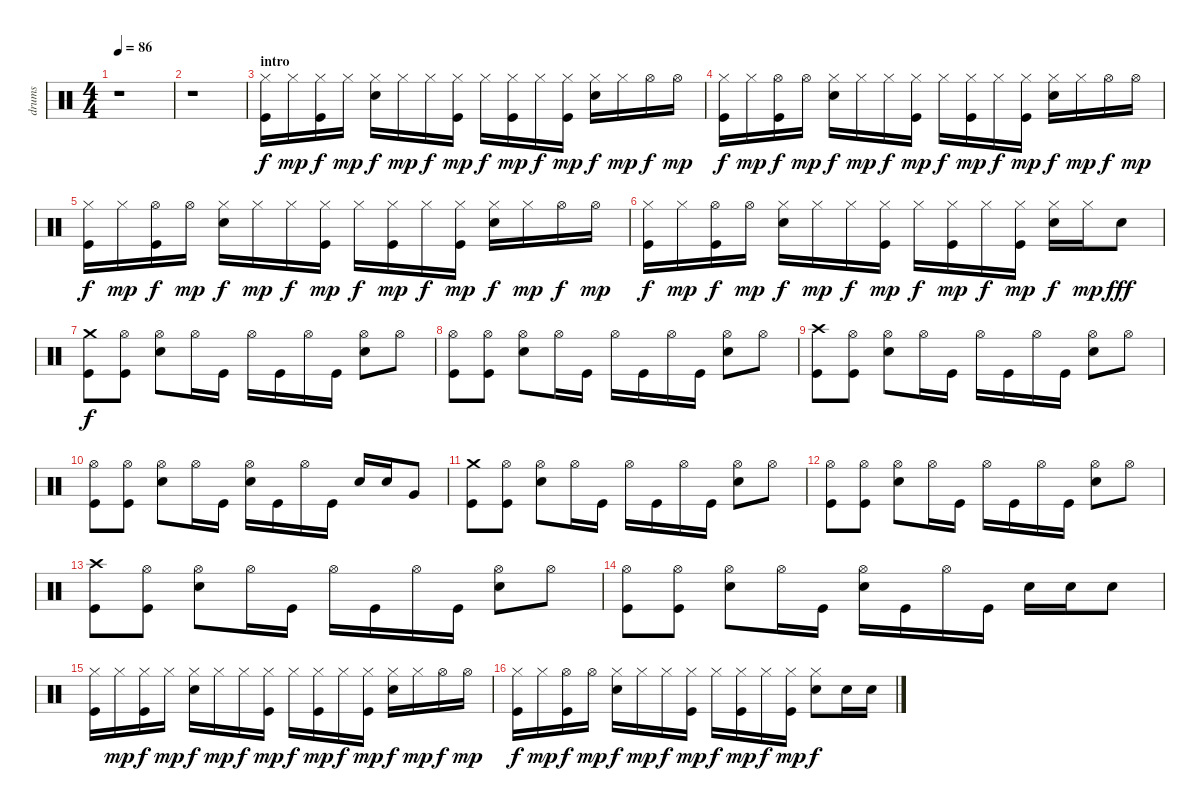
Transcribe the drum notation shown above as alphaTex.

\track ("drums" "drums") {instrument percussion}
\staff {score}
\articulation defaults
\ts (4 4)
\tempo 86
\clef neutral
\ks c
r.1{dy f} |
r.1 |
\section ("" "intro")
("Hi-Hat (closed)" "Kick (hit)").16 "Hi-Hat (closed)".16{dy mp} ("Hi-Hat (closed)" "Kick (hit)").16{dy f} "Hi-Hat (closed)".16{dy mp} ("Hi-Hat (closed)" "Electric Snare (hit)").16{dy f} "Hi-Hat (closed)".16{dy mp} "Hi-Hat (closed)".16{dy f} ("Hi-Hat (closed)" "Kick (hit)").16{dy mp} "Hi-Hat (closed)".16{dy f} ("Hi-Hat (closed)" "Kick (hit)").16{dy mp} "Hi-Hat (closed)".16{dy f} ("Hi-Hat (closed)" "Kick (hit)").16{dy mp} ("Hi-Hat (closed)" "Electric Snare (hit)").16{dy f} "Hi-Hat (closed)".16{dy mp} "Hi-Hat (open)".16{dy f} "Hi-Hat (open)".16{dy mp} |
("Hi-Hat (closed)" "Kick (hit)").16{dy f} "Hi-Hat (closed)".16{dy mp} ("Hi-Hat (open)" "Kick (hit)").16{dy f} "Hi-Hat (open)".16{dy mp} ("Hi-Hat (closed)" "Electric Snare (hit)").16{dy f} "Hi-Hat (closed)".16{dy mp} "Hi-Hat (closed)".16{dy f} ("Hi-Hat (closed)" "Kick (hit)").16{dy mp} "Hi-Hat (closed)".16{dy f} ("Hi-Hat (closed)" "Kick (hit)").16{dy mp} "Hi-Hat (closed)".16{dy f} ("Hi-Hat (closed)" "Kick (hit)").16{dy mp} ("Hi-Hat (closed)" "Electric Snare (hit)").16{dy f} "Hi-Hat (closed)".16{dy mp} "Hi-Hat (open)".16{dy f} "Hi-Hat (open)".16{dy mp} |
("Hi-Hat (closed)" "Kick (hit)").16{dy f} "Hi-Hat (closed)".16{dy mp} ("Hi-Hat (open)" "Kick (hit)").16{dy f} "Hi-Hat (open)".16{dy mp} ("Hi-Hat (closed)" "Electric Snare (hit)").16{dy f} "Hi-Hat (closed)".16{dy mp} "Hi-Hat (closed)".16{dy f} ("Hi-Hat (closed)" "Kick (hit)").16{dy mp} "Hi-Hat (closed)".16{dy f} ("Hi-Hat (closed)" "Kick (hit)").16{dy mp} "Hi-Hat (closed)".16{dy f} ("Hi-Hat (closed)" "Kick (hit)").16{dy mp} ("Hi-Hat (closed)" "Electric Snare (hit)").16{dy f} "Hi-Hat (closed)".16{dy mp} "Hi-Hat (open)".16{dy f} "Hi-Hat (open)".16{dy mp} |
("Hi-Hat (closed)" "Kick (hit)").16{dy f} "Hi-Hat (closed)".16{dy mp} ("Hi-Hat (open)" "Kick (hit)").16{dy f} "Hi-Hat (open)".16{dy mp} ("Hi-Hat (closed)" "Electric Snare (hit)").16{dy f} "Hi-Hat (closed)".16{dy mp} "Hi-Hat (closed)".16{dy f} ("Hi-Hat (closed)" "Kick (hit)").16{dy mp} "Hi-Hat (closed)".16{dy f} ("Hi-Hat (closed)" "Kick (hit)").16{dy mp} "Hi-Hat (closed)".16{dy f} ("Hi-Hat (closed)" "Kick (hit)").16{dy mp} ("Hi-Hat (closed)" "Electric Snare (hit)").16{dy f} "Hi-Hat (closed)".16{dy mp} "Electric Snare (hit)".8{dy fff} |
("Crash medium (hit)" "Kick (hit)").8{dy f} ("Hi-Hat (open)" "Kick (hit)").8 ("Hi-Hat (open)" "Electric Snare (hit)").8 "Hi-Hat (open)".16 "Kick (hit)".16 "Hi-Hat (open)".16 "Kick (hit)".16 "Hi-Hat (open)".16 "Kick (hit)".16 ("Hi-Hat (open)" "Electric Snare (hit)").8 "Hi-Hat (open)".8 |
("Hi-Hat (open)" "Kick (hit)").8 ("Hi-Hat (open)" "Kick (hit)").8 ("Hi-Hat (open)" "Electric Snare (hit)").8 "Hi-Hat (open)".16 "Kick (hit)".16 "Hi-Hat (open)".16 "Kick (hit)".16 "Hi-Hat (open)".16 "Kick (hit)".16 ("Hi-Hat (open)" "Electric Snare (hit)").8 "Hi-Hat (open)".8 |
("Crash high (hit)" "Kick (hit)").8 ("Hi-Hat (open)" "Kick (hit)").8 ("Hi-Hat (open)" "Electric Snare (hit)").8 "Hi-Hat (open)".16 "Kick (hit)".16 "Hi-Hat (open)".16 "Kick (hit)".16 "Hi-Hat (open)".16 "Kick (hit)".16 ("Hi-Hat (open)" "Electric Snare (hit)").8 "Hi-Hat (open)".8 |
("Hi-Hat (open)" "Kick (hit)").8 ("Hi-Hat (open)" "Kick (hit)").8 ("Hi-Hat (open)" "Electric Snare (hit)").8 "Hi-Hat (open)".16 "Kick (hit)".16 ("Hi-Hat (open)" "Electric Snare (hit)").16 "Kick (hit)".16 "Hi-Hat (open)".16 "Kick (hit)".16 "Electric Snare (hit)".16 "Electric Snare (hit)".16 "Very Low Tom (hit)".8 |
("Crash medium (hit)" "Kick (hit)").8 ("Hi-Hat (open)" "Kick (hit)").8 ("Hi-Hat (open)" "Electric Snare (hit)").8 "Hi-Hat (open)".16 "Kick (hit)".16 "Hi-Hat (open)".16 "Kick (hit)".16 "Hi-Hat (open)".16 "Kick (hit)".16 ("Hi-Hat (open)" "Electric Snare (hit)").8 "Hi-Hat (open)".8 |
("Hi-Hat (open)" "Kick (hit)").8 ("Hi-Hat (open)" "Kick (hit)").8 ("Hi-Hat (open)" "Electric Snare (hit)").8 "Hi-Hat (open)".16 "Kick (hit)".16 "Hi-Hat (open)".16 "Kick (hit)".16 "Hi-Hat (open)".16 "Kick (hit)".16 ("Hi-Hat (open)" "Electric Snare (hit)").8 "Hi-Hat (open)".8 |
("Crash high (hit)" "Kick (hit)").8 ("Hi-Hat (open)" "Kick (hit)").8 ("Hi-Hat (open)" "Electric Snare (hit)").8 "Hi-Hat (open)".16 "Kick (hit)".16 "Hi-Hat (open)".16 "Kick (hit)".16 "Hi-Hat (open)".16 "Kick (hit)".16 ("Hi-Hat (open)" "Electric Snare (hit)").8 "Hi-Hat (open)".8 |
("Hi-Hat (open)" "Kick (hit)").8 ("Hi-Hat (open)" "Kick (hit)").8 ("Hi-Hat (open)" "Electric Snare (hit)").8 "Hi-Hat (open)".16 "Kick (hit)".16 ("Hi-Hat (open)" "Electric Snare (hit)").16 "Kick (hit)".16 "Hi-Hat (open)".16 "Kick (hit)".16 "Electric Snare (hit)".16 "Electric Snare (hit)".16 "Electric Snare (hit)".8 |
("Hi-Hat (closed)" "Kick (hit)").16 "Hi-Hat (closed)".16{dy mp} ("Hi-Hat (closed)" "Kick (hit)").16{dy f} "Hi-Hat (closed)".16{dy mp} ("Hi-Hat (closed)" "Electric Snare (hit)").16{dy f} "Hi-Hat (closed)".16{dy mp} "Hi-Hat (closed)".16{dy f} ("Hi-Hat (closed)" "Kick (hit)").16{dy mp} "Hi-Hat (closed)".16{dy f} ("Hi-Hat (closed)" "Kick (hit)").16{dy mp} "Hi-Hat (closed)".16{dy f} ("Hi-Hat (closed)" "Kick (hit)").16{dy mp} ("Hi-Hat (closed)" "Electric Snare (hit)").16{dy f} "Hi-Hat (closed)".16{dy mp} "Hi-Hat (open)".16{dy f} "Hi-Hat (open)".16{dy mp} |
("Hi-Hat (closed)" "Kick (hit)").16{dy f} "Hi-Hat (closed)".16{dy mp} ("Hi-Hat (open)" "Kick (hit)").16{dy f} "Hi-Hat (open)".16{dy mp} ("Hi-Hat (closed)" "Electric Snare (hit)").16{dy f} "Hi-Hat (closed)".16{dy mp} "Hi-Hat (closed)".16{dy f} ("Hi-Hat (closed)" "Kick (hit)").16{dy mp} "Hi-Hat (closed)".16{dy f} ("Hi-Hat (closed)" "Kick (hit)").16{dy mp} "Hi-Hat (closed)".16{dy f} ("Hi-Hat (closed)" "Kick (hit)").16{dy mp} ("Hi-Hat (closed)" "Electric Snare (hit)").8{dy f} "Electric Snare (hit)".16 "Electric Snare (hit)".16
